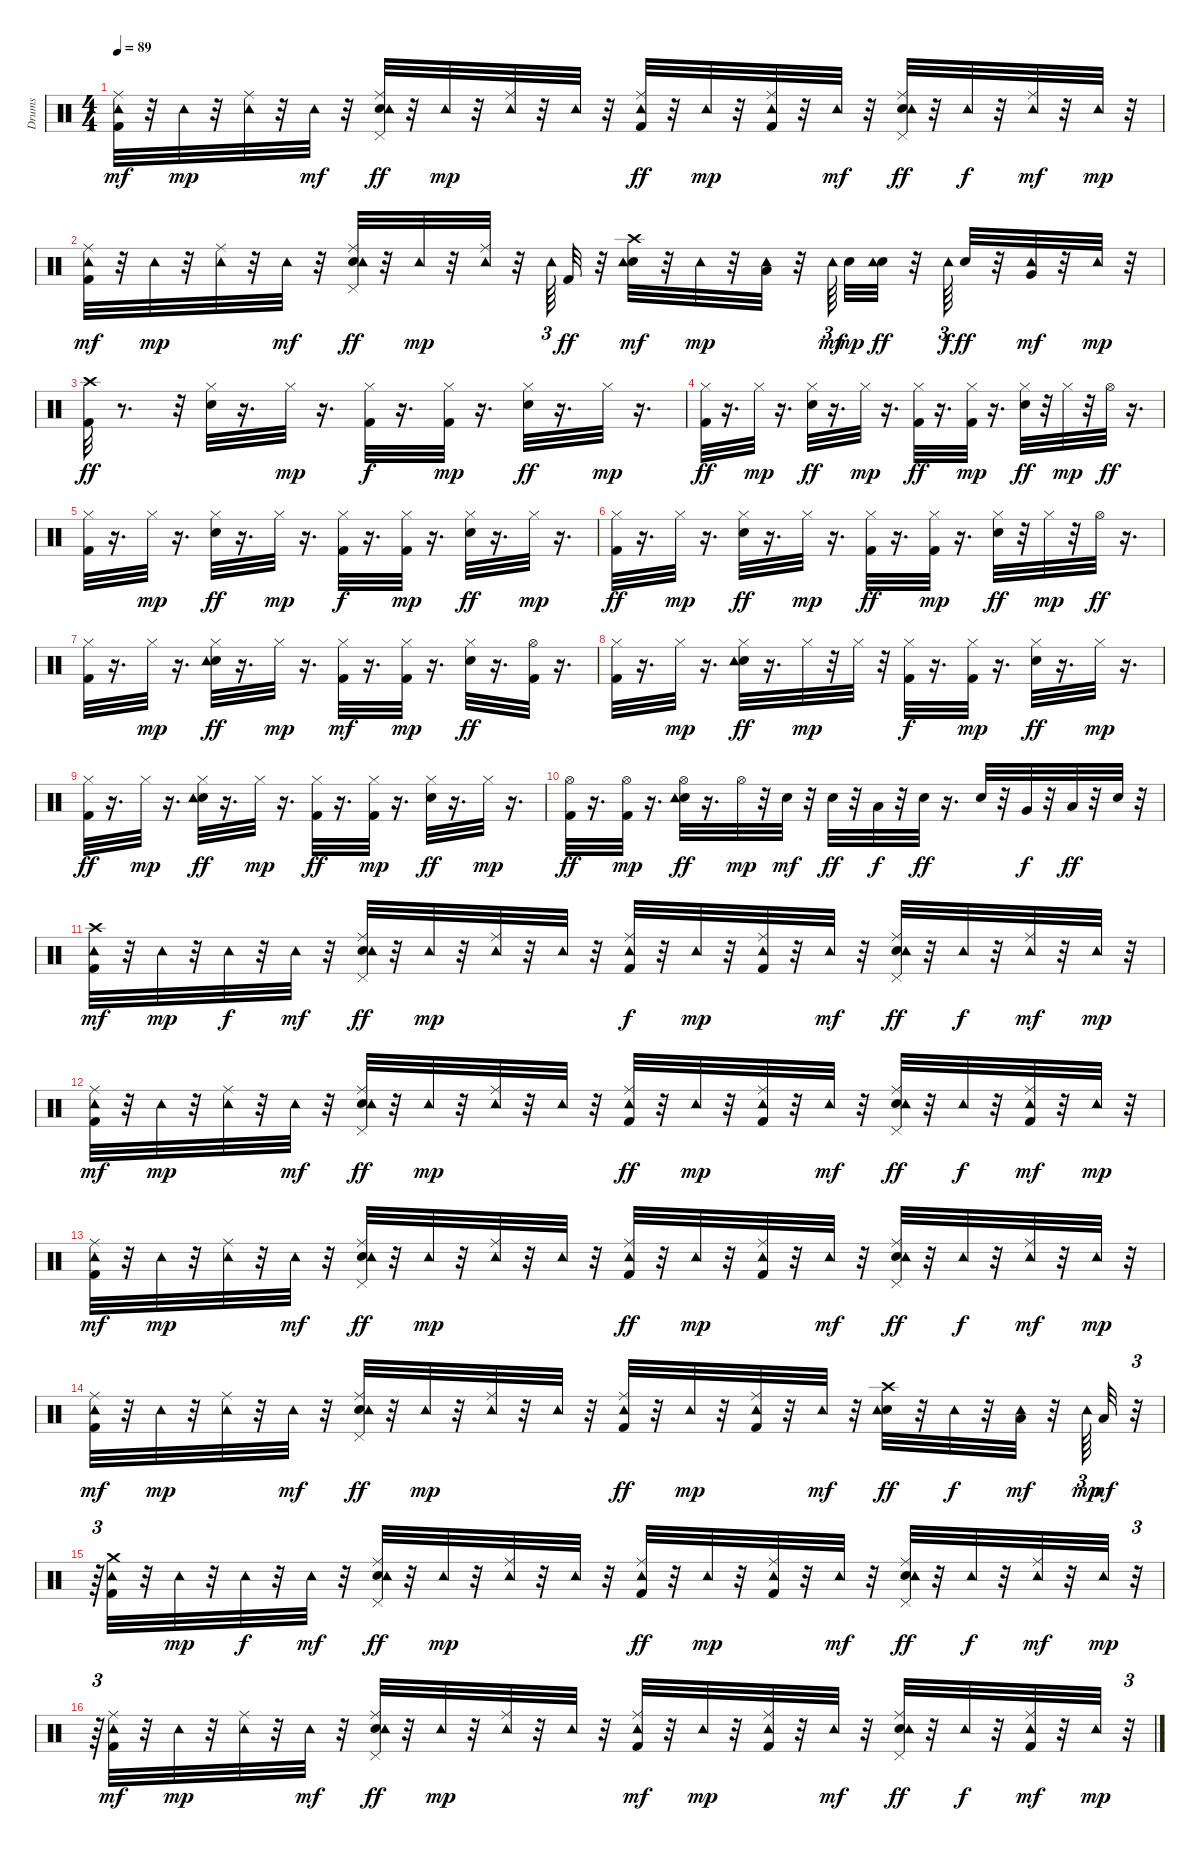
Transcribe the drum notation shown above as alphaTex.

\track ("Drums   " "Drums   ") {instrument percussion}
\staff {score}
\articulation defaults
\ts (4 4)
\tempo 89
\clef neutral
\ks c
("Kick (hit) 2" "Ride (middle)" "Tambourine (hit)").32{dy mf} r.32 "Tambourine (hit)".32{dy mp} r.32 ("Ride (middle)" "Tambourine (hit)").32 r.32 "Tambourine (hit)".32{dy mf} r.32 ("Electric Snare (hit)" "Pedal Hi-Hat (hit)" "Ride (middle)" "Tambourine (hit)").32{dy ff} r.32 "Tambourine (hit)".32{dy mp} r.32 ("Ride (middle)" "Tambourine (hit)").32 r.32 "Tambourine (hit)".32 r.32 ("Kick (hit) 2" "Ride (middle)" "Tambourine (hit)").32{dy ff} r.32 "Tambourine (hit)".32{dy mp} r.32 ("Kick (hit) 2" "Ride (middle)" "Tambourine (hit)").32 r.32 "Tambourine (hit)".32{dy mf} r.32 ("Electric Snare (hit)" "Pedal Hi-Hat (hit)" "Ride (middle)" "Tambourine (hit)").32{dy ff} r.32 "Tambourine (hit)".32{dy f} r.32 ("Ride (middle)" "Tambourine (hit)").32{dy mf} r.32 "Tambourine (hit)".32{dy mp} r.32 |
("Kick (hit) 2" "Ride (middle)" "Tambourine (hit)").32{dy mf} r.32 "Tambourine (hit)".32{dy mp} r.32 ("Ride (middle)" "Tambourine (hit)").32 r.32 "Tambourine (hit)".32{dy mf} r.32 ("Electric Snare (hit)" "Pedal Hi-Hat (hit)" "Ride (middle)" "Tambourine (hit)").32{dy ff} r.32 "Tambourine (hit)".32{dy mp} r.32 ("Ride (middle)" "Tambourine (hit)").32 r.32 "Tambourine (hit)".64{tu (3 2)} "Kick (hit) 2".32{dy ff} r.32 ("Electric Snare (hit)" "Crash high (hit)" "Tambourine (hit)").32{dy mf} r.32 "Tambourine (hit)".32{dy mp} r.32 ("Low Tom (hit)" "Tambourine (hit)").32 r.32 "Tambourine (hit)".64{tu (3 2) dy mf beam splitsecondary} "Electric Snare (hit)".32{dy mp} ("Electric Snare (hit)" "Tambourine (hit)").32{dy ff} r.32 "Tambourine (hit)".64{tu (3 2) dy f} "Electric Snare (hit)".32{dy ff} r.32 ("Very Low Tom (hit)" "Tambourine (hit)").32{dy mf} r.32 "Tambourine (hit)".32{dy mp} r.32 |
("Kick (hit) 2" "Crash high (hit)").32{dy ff} r.8{d} r.32 ("Electric Snare (hit)" "Hi-Hat (closed)").32 r.16{d} "Hi-Hat (closed)".32{dy mp} r.16{d} ("Kick (hit) 2" "Hi-Hat (closed)").32{dy f} r.16{d} ("Kick (hit) 2" "Hi-Hat (closed)").32{dy mp} r.16{d} ("Electric Snare (hit)" "Hi-Hat (closed)").32{dy ff} r.16{d} "Hi-Hat (closed)".32{dy mp} r.16{d} |
("Kick (hit) 2" "Hi-Hat (closed)").32{dy ff} r.16{d} "Hi-Hat (closed)".32{dy mp} r.16{d} ("Electric Snare (hit)" "Hi-Hat (closed)").32{dy ff} r.16{d} "Hi-Hat (closed)".32{dy mp} r.16{d} ("Kick (hit) 2" "Hi-Hat (closed)").32{dy ff} r.16{d} ("Kick (hit) 2" "Hi-Hat (closed)").32{dy mp} r.16{d} ("Electric Snare (hit)" "Hi-Hat (closed)").32{dy ff} r.32 "Hi-Hat (closed)".32{dy mp} r.32 "Hi-Hat (open)".32{dy ff} r.16{d} |
("Kick (hit) 2" "Hi-Hat (closed)").32 r.16{d} "Hi-Hat (closed)".32{dy mp} r.16{d} ("Electric Snare (hit)" "Hi-Hat (closed)").32{dy ff} r.16{d} "Hi-Hat (closed)".32{dy mp} r.16{d} ("Kick (hit) 2" "Hi-Hat (closed)").32{dy f} r.16{d} ("Kick (hit) 2" "Hi-Hat (closed)").32{dy mp} r.16{d} ("Electric Snare (hit)" "Hi-Hat (closed)").32{dy ff} r.16{d} "Hi-Hat (closed)".32{dy mp} r.16{d} |
("Kick (hit) 2" "Hi-Hat (closed)").32{dy ff} r.16{d} "Hi-Hat (closed)".32{dy mp} r.16{d} ("Electric Snare (hit)" "Hi-Hat (closed)").32{dy ff} r.16{d} "Hi-Hat (closed)".32{dy mp} r.16{d} ("Kick (hit) 2" "Hi-Hat (closed)").32{dy ff} r.16{d} ("Kick (hit) 2" "Hi-Hat (closed)").32{dy mp} r.16{d} ("Electric Snare (hit)" "Hi-Hat (closed)").32{dy ff} r.32 "Hi-Hat (closed)".32{dy mp} r.32 "Hi-Hat (open)".32{dy ff} r.16{d} |
("Kick (hit) 2" "Hi-Hat (closed)").32 r.16{d} "Hi-Hat (closed)".32{dy mp} r.16{d} ("Electric Snare (hit)" "Hi-Hat (closed)" "Tambourine (hit)").32{dy ff} r.16{d} "Hi-Hat (closed)".32{dy mp} r.16{d} ("Kick (hit) 2" "Hi-Hat (closed)").32{dy mf} r.16{d} ("Kick (hit) 2" "Hi-Hat (closed)").32{dy mp} r.16{d} ("Electric Snare (hit)" "Hi-Hat (closed)").32{dy ff} r.16{d} ("Kick (hit) 2" "Hi-Hat (open)").32 r.16{d} |
("Kick (hit) 2" "Hi-Hat (closed)").32 r.16{d} "Hi-Hat (closed)".32{dy mp} r.16{d} ("Electric Snare (hit)" "Hi-Hat (closed)" "Tambourine (hit)").32{dy ff} r.16{d} "Hi-Hat (closed)".32{dy mp} r.32 "Hi-Hat (closed)".32 r.32 ("Kick (hit) 2" "Hi-Hat (closed)").32{dy f} r.16{d} ("Kick (hit) 2" "Hi-Hat (closed)").32{dy mp} r.16{d} ("Electric Snare (hit)" "Hi-Hat (closed)").32{dy ff} r.16{d} "Hi-Hat (closed)".32{dy mp} r.16{d} |
("Kick (hit) 2" "Hi-Hat (closed)").32{dy ff} r.16{d} "Hi-Hat (closed)".32{dy mp} r.16{d} ("Electric Snare (hit)" "Hi-Hat (closed)" "Tambourine (hit)").32{dy ff} r.16{d} "Hi-Hat (closed)".32{dy mp} r.16{d} ("Kick (hit) 2" "Hi-Hat (closed)").32{dy ff} r.16{d} ("Kick (hit) 2" "Hi-Hat (closed)").32{dy mp} r.16{d} ("Electric Snare (hit)" "Hi-Hat (closed)").32{dy ff} r.16{d} "Hi-Hat (closed)".32{dy mp} r.16{d} |
("Kick (hit) 2" "Hi-Hat (open)").32{dy ff} r.16{d} ("Kick (hit) 2" "Hi-Hat (open)").32{dy mp} r.16{d} ("Electric Snare (hit)" "Hi-Hat (open)" "Tambourine (hit)").32{dy ff} r.16{d} "Hi-Hat (open)".32{dy mp} r.32 "Electric Snare (hit)".32{dy mf} r.32 "Electric Snare (hit)".32{dy ff} r.32 "Low Tom (hit)".32{dy f} r.32 "Electric Snare (hit)".32{dy ff} r.16{d} "Electric Snare (hit)".32 r.32 "Very Low Tom (hit)".32{dy f} r.32 "Low Floor Tom (hit)".32{dy ff} r.32 "Electric Snare (hit)".32 r.32 |
("Kick (hit) 2" "Crash high (hit)" "Tambourine (hit)").32{dy mf} r.32 "Tambourine (hit)".32{dy mp} r.32 "Tambourine (hit)".32{dy f} r.32 "Tambourine (hit)".32{dy mf} r.32 ("Electric Snare (hit)" "Pedal Hi-Hat (hit)" "Ride (middle)" "Tambourine (hit)").32{dy ff} r.32 "Tambourine (hit)".32{dy mp} r.32 ("Ride (middle)" "Tambourine (hit)").32 r.32 "Tambourine (hit)".32 r.32 ("Kick (hit) 2" "Ride (middle)" "Tambourine (hit)").32{dy f} r.32 "Tambourine (hit)".32{dy mp} r.32 ("Kick (hit) 2" "Ride (middle)" "Tambourine (hit)").32 r.32 "Tambourine (hit)".32{dy mf} r.32 ("Electric Snare (hit)" "Pedal Hi-Hat (hit)" "Ride (middle)" "Tambourine (hit)").32{dy ff} r.32 "Tambourine (hit)".32{dy f} r.32 ("Ride (middle)" "Tambourine (hit)").32{dy mf} r.32 "Tambourine (hit)".32{dy mp} r.32 |
("Kick (hit) 2" "Ride (middle)" "Tambourine (hit)").32{dy mf} r.32 "Tambourine (hit)".32{dy mp} r.32 ("Ride (middle)" "Tambourine (hit)").32 r.32 "Tambourine (hit)".32{dy mf} r.32 ("Electric Snare (hit)" "Pedal Hi-Hat (hit)" "Ride (middle)" "Tambourine (hit)").32{dy ff} r.32 "Tambourine (hit)".32{dy mp} r.32 ("Ride (middle)" "Tambourine (hit)").32 r.32 "Tambourine (hit)".32 r.32 ("Kick (hit) 2" "Ride (middle)" "Tambourine (hit)").32{dy ff} r.32 "Tambourine (hit)".32{dy mp} r.32 ("Kick (hit) 2" "Ride (middle)" "Tambourine (hit)").32 r.32 "Tambourine (hit)".32{dy mf} r.32 ("Electric Snare (hit)" "Pedal Hi-Hat (hit)" "Ride (middle)" "Tambourine (hit)").32{dy ff} r.32 "Tambourine (hit)".32{dy f} r.32 ("Kick (hit) 2" "Ride (middle)" "Tambourine (hit)").32{dy mf} r.32 "Tambourine (hit)".32{dy mp} r.32 |
("Kick (hit) 2" "Ride (middle)" "Tambourine (hit)").32{dy mf} r.32 "Tambourine (hit)".32{dy mp} r.32 ("Ride (middle)" "Tambourine (hit)").32 r.32 "Tambourine (hit)".32{dy mf} r.32 ("Electric Snare (hit)" "Pedal Hi-Hat (hit)" "Ride (middle)" "Tambourine (hit)").32{dy ff} r.32 "Tambourine (hit)".32{dy mp} r.32 ("Ride (middle)" "Tambourine (hit)").32 r.32 "Tambourine (hit)".32 r.32 ("Kick (hit) 2" "Ride (middle)" "Tambourine (hit)").32{dy ff} r.32 "Tambourine (hit)".32{dy mp} r.32 ("Kick (hit) 2" "Ride (middle)" "Tambourine (hit)").32 r.32 "Tambourine (hit)".32{dy mf} r.32 ("Electric Snare (hit)" "Pedal Hi-Hat (hit)" "Ride (middle)" "Tambourine (hit)").32{dy ff} r.32 "Tambourine (hit)".32{dy f} r.32 ("Ride (middle)" "Tambourine (hit)").32{dy mf} r.32 "Tambourine (hit)".32{dy mp} r.32 |
("Kick (hit) 2" "Ride (middle)" "Tambourine (hit)").32{dy mf} r.32 "Tambourine (hit)".32{dy mp} r.32 ("Ride (middle)" "Tambourine (hit)").32 r.32 "Tambourine (hit)".32{dy mf} r.32 ("Electric Snare (hit)" "Pedal Hi-Hat (hit)" "Ride (middle)" "Tambourine (hit)").32{dy ff} r.32 "Tambourine (hit)".32{dy mp} r.32 ("Ride (middle)" "Tambourine (hit)").32 r.32 "Tambourine (hit)".32 r.32 ("Kick (hit) 2" "Ride (middle)" "Tambourine (hit)").32{dy ff} r.32 "Tambourine (hit)".32{dy mp} r.32 ("Kick (hit) 2" "Ride (middle)" "Tambourine (hit)").32 r.32 "Tambourine (hit)".32{dy mf} r.32 ("Electric Snare (hit)" "Crash high (hit)" "Tambourine (hit)").32{dy ff} r.32 "Tambourine (hit)".32{dy f} r.32 ("Low Tom (hit)" "Tambourine (hit)").32{dy mf} r.32 "Tambourine (hit)".64{tu (3 2) dy mp} "Low Tom (hit)".32{dy mf} r.32{tu (3 2)} |
r.64{tu (3 2)} ("Kick (hit) 2" "Tambourine (hit)" "Crash medium (hit)").32 r.32 "Tambourine (hit)".32{dy mp} r.32 "Tambourine (hit)".32{dy f} r.32 "Tambourine (hit)".32{dy mf} r.32 ("Electric Snare (hit)" "Pedal Hi-Hat (hit)" "Ride (middle)" "Tambourine (hit)").32{dy ff} r.32 "Tambourine (hit)".32{dy mp} r.32 ("Ride (middle)" "Tambourine (hit)").32 r.32 "Tambourine (hit)".32 r.32 ("Kick (hit) 2" "Ride (middle)" "Tambourine (hit)").32{dy ff} r.32 "Tambourine (hit)".32{dy mp} r.32 ("Kick (hit) 2" "Ride (middle)" "Tambourine (hit)").32 r.32 "Tambourine (hit)".32{dy mf} r.32 ("Electric Snare (hit)" "Pedal Hi-Hat (hit)" "Ride (middle)" "Tambourine (hit)").32{dy ff} r.32 "Tambourine (hit)".32{dy f} r.32 ("Ride (middle)" "Tambourine (hit)").32{dy mf} r.32 "Tambourine (hit)".32{dy mp} r.32{tu (3 2)} |
r.64{tu (3 2)} ("Kick (hit) 2" "Ride (middle)" "Tambourine (hit)").32{dy mf} r.32 "Tambourine (hit)".32{dy mp} r.32 ("Ride (middle)" "Tambourine (hit)").32 r.32 "Tambourine (hit)".32{dy mf} r.32 ("Electric Snare (hit)" "Pedal Hi-Hat (hit)" "Ride (middle)" "Tambourine (hit)").32{dy ff} r.32 "Tambourine (hit)".32{dy mp} r.32 ("Ride (middle)" "Tambourine (hit)").32 r.32 "Tambourine (hit)".32 r.32 ("Kick (hit) 2" "Ride (middle)" "Tambourine (hit)").32{dy mf} r.32 "Tambourine (hit)".32{dy mp} r.32 ("Kick (hit) 2" "Ride (middle)" "Tambourine (hit)").32 r.32 "Tambourine (hit)".32{dy mf} r.32 ("Electric Snare (hit)" "Pedal Hi-Hat (hit)" "Ride (middle)" "Tambourine (hit)").32{dy ff} r.32 "Tambourine (hit)".32{dy f} r.32 ("Kick (hit) 2" "Ride (middle)" "Tambourine (hit)").32{dy mf} r.32 "Tambourine (hit)".32{dy mp} r.32{tu (3 2)}
